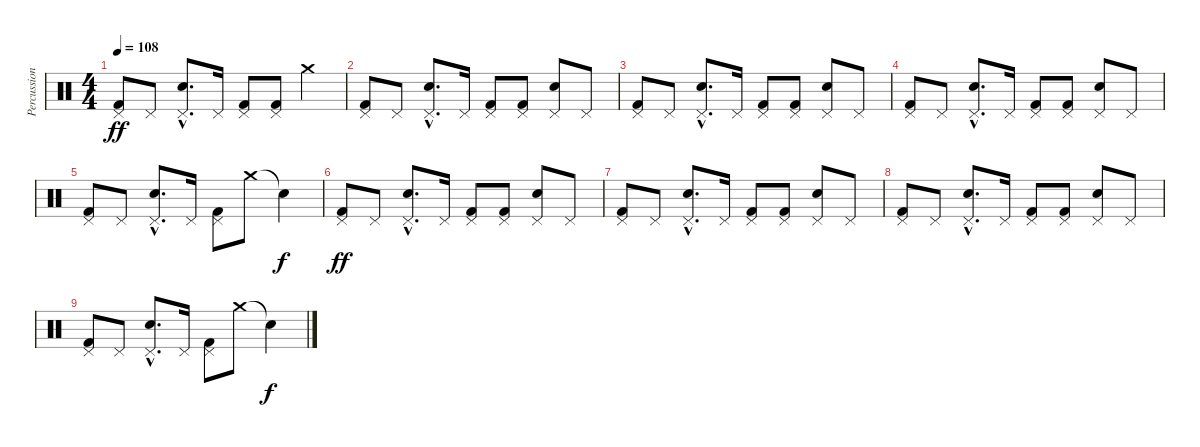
\track ("Percussions" "Percussion") {instrument percussion}
\staff {score}
\articulation defaults
\ts (4 4)
\tempo 108
\clef neutral
\ks c
("Pedal Hi-Hat (hit)" "Kick (hit) 2").8{dy ff} "Pedal Hi-Hat (hit)".8 ("Pedal Hi-Hat (hit)"{hac} "Electric Snare (hit)"{hac}).8{d} "Pedal Hi-Hat (hit)".16 ("Pedal Hi-Hat (hit)" "Kick (hit) 2").8 ("Pedal Hi-Hat (hit)" "Kick (hit) 2").8 "Crash medium (hit)".4 |
("Pedal Hi-Hat (hit)" "Kick (hit) 2").8 "Pedal Hi-Hat (hit)".8 ("Pedal Hi-Hat (hit)"{hac} "Electric Snare (hit)"{hac}).8{d} "Pedal Hi-Hat (hit)".16 ("Pedal Hi-Hat (hit)" "Kick (hit) 2").8 ("Pedal Hi-Hat (hit)" "Kick (hit) 2").8 ("Pedal Hi-Hat (hit)" "Electric Snare (hit)").8 "Pedal Hi-Hat (hit)".8 |
("Pedal Hi-Hat (hit)" "Kick (hit) 2").8 "Pedal Hi-Hat (hit)".8 ("Pedal Hi-Hat (hit)"{hac} "Electric Snare (hit)"{hac}).8{d} "Pedal Hi-Hat (hit)".16 ("Pedal Hi-Hat (hit)" "Kick (hit) 2").8 ("Pedal Hi-Hat (hit)" "Kick (hit) 2").8 ("Pedal Hi-Hat (hit)" "Electric Snare (hit)").8 "Pedal Hi-Hat (hit)".8 |
("Pedal Hi-Hat (hit)" "Kick (hit) 2").8 "Pedal Hi-Hat (hit)".8 ("Pedal Hi-Hat (hit)"{hac} "Electric Snare (hit)"{hac}).8{d} "Pedal Hi-Hat (hit)".16 ("Pedal Hi-Hat (hit)" "Kick (hit) 2").8 ("Pedal Hi-Hat (hit)" "Kick (hit) 2").8 ("Pedal Hi-Hat (hit)" "Electric Snare (hit)").8 "Pedal Hi-Hat (hit)".8 |
("Pedal Hi-Hat (hit)" "Kick (hit) 2").8 "Pedal Hi-Hat (hit)".8 ("Pedal Hi-Hat (hit)"{hac} "Electric Snare (hit)"{hac}).8{d} "Pedal Hi-Hat (hit)".16 ("Pedal Hi-Hat (hit)" "Kick (hit) 2").8 "Crash medium (hit)".8 "Snare (hit)"{t}.4{dy f} |
("Pedal Hi-Hat (hit)" "Kick (hit) 2").8{dy ff} "Pedal Hi-Hat (hit)".8 ("Pedal Hi-Hat (hit)"{hac} "Electric Snare (hit)"{hac}).8{d} "Pedal Hi-Hat (hit)".16 ("Pedal Hi-Hat (hit)" "Kick (hit) 2").8 ("Pedal Hi-Hat (hit)" "Kick (hit) 2").8 ("Pedal Hi-Hat (hit)" "Electric Snare (hit)").8 "Pedal Hi-Hat (hit)".8 |
("Pedal Hi-Hat (hit)" "Kick (hit) 2").8 "Pedal Hi-Hat (hit)".8 ("Pedal Hi-Hat (hit)"{hac} "Electric Snare (hit)"{hac}).8{d} "Pedal Hi-Hat (hit)".16 ("Pedal Hi-Hat (hit)" "Kick (hit) 2").8 ("Pedal Hi-Hat (hit)" "Kick (hit) 2").8 ("Pedal Hi-Hat (hit)" "Electric Snare (hit)").8 "Pedal Hi-Hat (hit)".8 |
("Pedal Hi-Hat (hit)" "Kick (hit) 2").8 "Pedal Hi-Hat (hit)".8 ("Pedal Hi-Hat (hit)"{hac} "Electric Snare (hit)"{hac}).8{d} "Pedal Hi-Hat (hit)".16 ("Pedal Hi-Hat (hit)" "Kick (hit) 2").8 ("Pedal Hi-Hat (hit)" "Kick (hit) 2").8 ("Pedal Hi-Hat (hit)" "Electric Snare (hit)").8 "Pedal Hi-Hat (hit)".8 |
("Pedal Hi-Hat (hit)" "Kick (hit) 2").8 "Pedal Hi-Hat (hit)".8 ("Pedal Hi-Hat (hit)"{hac} "Electric Snare (hit)"{hac}).8{d} "Pedal Hi-Hat (hit)".16 ("Pedal Hi-Hat (hit)" "Kick (hit) 2").8 "Crash medium (hit)".8 "Snare (hit)"{t}.4{dy f}
